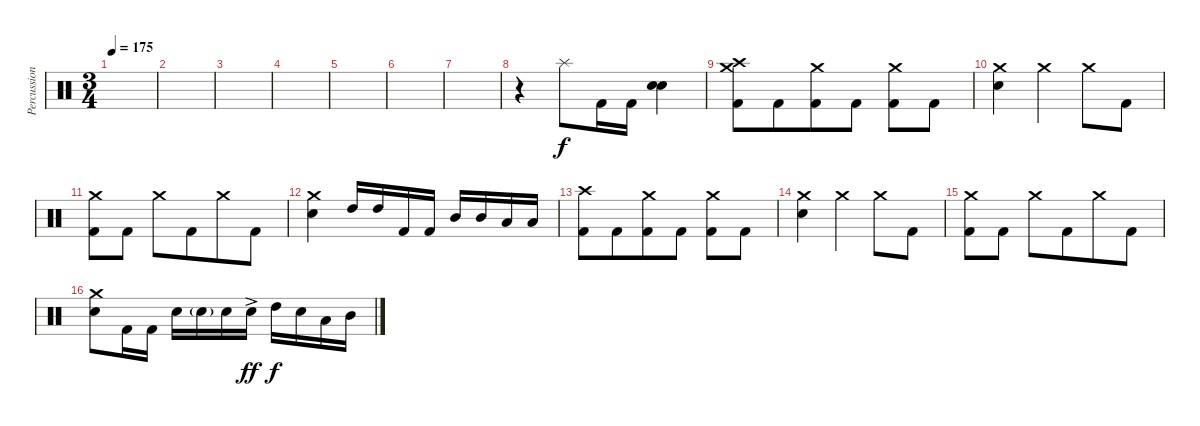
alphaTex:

\track ("Percussion" "Percussion") {instrument percussion bank 7}
\staff {score}
\articulation defaults
\ts (3 4)
\tempo 175
\clef neutral
\ks c
|
|
|
|
|
|
|
r.4 "Splash (hit)".8{beam merge} "Kick (hit) 2".16 "Kick (hit) 2".16 ("Electric Snare (hit)" "Electric Snare (hit)").4{bd 120} |
("Crash medium (hit)" "Crash high (hit)" "Kick (hit) 2").8{beam merge} "Kick (hit) 2".8{beam merge} ("Crash medium (hit)" "Kick (hit) 2").8 "Kick (hit) 2".8 ("Crash medium (hit)" "Kick (hit) 2").8{beam merge} "Kick (hit) 2".8 |
("Crash medium (hit)" "Electric Snare (hit)").4 "Crash medium (hit)".4{beam merge} "Crash medium (hit)".8{beam merge} "Kick (hit) 2".8 |
("Crash medium (hit)" "Kick (hit) 2").8{beam merge} "Kick (hit) 2".8 "Crash medium (hit)".8 "Kick (hit) 2".8{beam merge} "Crash medium (hit)".8 "Kick (hit) 2".8 |
("Crash medium (hit)" "Electric Snare (hit)").4 "High Tom (hit)".16 "High Tom (hit)".16{beam merge} "Kick (hit) 2".16{beam merge} "Kick (hit) 2".16 "Mid Tom (hit)".16 "Mid Tom (hit)".16 "Low Tom (hit)".16{beam merge} "Low Tom (hit)".16 |
("Crash high (hit)" "Kick (hit) 2").8{beam merge} "Kick (hit) 2".8{beam merge} ("Crash medium (hit)" "Kick (hit) 2").8 "Kick (hit) 2".8 ("Crash medium (hit)" "Kick (hit) 2").8{beam merge} "Kick (hit) 2".8 |
("Crash medium (hit)" "Electric Snare (hit)").4 "Crash medium (hit)".4{beam merge} "Crash medium (hit)".8{beam merge} "Kick (hit) 2".8 |
("Crash medium (hit)" "Kick (hit) 2").8{beam merge} "Kick (hit) 2".8 "Crash medium (hit)".8 "Kick (hit) 2".8{beam merge} "Crash medium (hit)".8 "Kick (hit) 2".8 |
("Crash medium (hit)" "Electric Snare (hit)").8 "Kick (hit) 2".16 "Kick (hit) 2".16 "Electric Snare (hit)".16 "Electric Snare (hit)"{g}.16{beam merge} "Electric Snare (hit)".16{beam merge} "Electric Snare (hit)"{ac}.16{dy ff} "High Tom (hit)".16{dy f} "Electric Snare (hit)".16 "Low Floor Tom (hit)".16{beam merge} "Mid Tom (hit)".16
